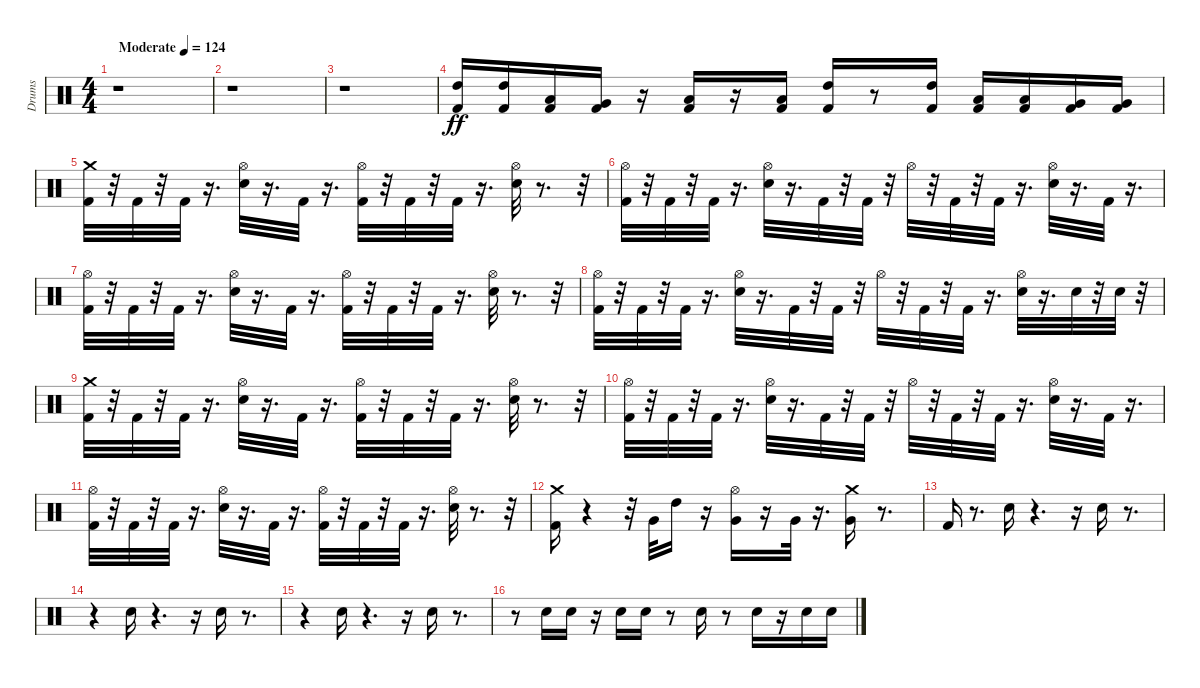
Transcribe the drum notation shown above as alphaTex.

\track ("Drums" "Drums") {instrument percussion}
\staff {score}
\articulation defaults
\ts (4 4)
\tempo (124 "Moderate")
\clef neutral
\ks c
r.1{dy ff} |
r.1 |
r.1 |
("High Tom (hit)" "Kick (hit) 2").16 ("High Tom (hit)" "Kick (hit) 2").16 ("Low Tom (hit)" "Kick (hit) 2").16 ("Very Low Tom (hit)" "Kick (hit) 2").16 r.16 ("Low Tom (hit)" "Kick (hit) 2").16 r.16 ("Low Tom (hit)" "Kick (hit) 2").16 ("High Tom (hit)" "Kick (hit) 2").16 r.8 ("High Tom (hit)" "Kick (hit) 2").16 ("Low Tom (hit)" "Kick (hit) 2").16 ("Low Tom (hit)" "Kick (hit) 2").16 ("Very Low Tom (hit)" "Kick (hit) 2").16 ("Very Low Tom (hit)" "Kick (hit) 2").16 |
("Crash medium (hit)" "Kick (hit) 2").32 r.32 "Kick (hit) 2".32 r.32 "Kick (hit) 2".32 r.16{d} ("Hi-Hat (open)" "Electric Snare (hit)").32 r.16{d} "Kick (hit) 2".32 r.16{d} ("Kick (hit) 2" "Hi-Hat (open)").32 r.32 "Kick (hit) 2".32 r.32 "Kick (hit) 2".32 r.16{d} ("Hi-Hat (open)" "Electric Snare (hit)").32 r.8{d} r.32 |
("Kick (hit) 2" "Hi-Hat (open)").32 r.32 "Kick (hit) 2".32 r.32 "Kick (hit) 2".32 r.16{d} ("Electric Snare (hit)" "Hi-Hat (open)").32 r.16{d} "Kick (hit) 2".32 r.32 "Kick (hit) 2".32 r.32 "Hi-Hat (open)".32 r.32 "Kick (hit) 2".32 r.32 "Kick (hit) 2".32 r.16{d} ("Electric Snare (hit)" "Hi-Hat (open)").32 r.16{d} "Kick (hit) 2".32 r.16{d} |
("Hi-Hat (open)" "Kick (hit) 2").32 r.32 "Kick (hit) 2".32 r.32 "Kick (hit) 2".32 r.16{d} ("Hi-Hat (open)" "Electric Snare (hit)").32 r.16{d} "Kick (hit) 2".32 r.16{d} ("Hi-Hat (open)" "Kick (hit) 2").32 r.32 "Kick (hit) 2".32 r.32 "Kick (hit) 2".32 r.16{d} ("Hi-Hat (open)" "Electric Snare (hit)").32 r.8{d} r.32 |
("Kick (hit) 2" "Hi-Hat (open)").32 r.32 "Kick (hit) 2".32 r.32 "Kick (hit) 2".32 r.16{d} ("Electric Snare (hit)" "Hi-Hat (open)").32 r.16{d} "Kick (hit) 2".32 r.32 "Kick (hit) 2".32 r.32 "Hi-Hat (open)".32 r.32 "Kick (hit) 2".32 r.32 "Kick (hit) 2".32 r.16{d} ("Hi-Hat (open)" "Electric Snare (hit)").32 r.16{d} "Electric Snare (hit)".32 r.32 "Electric Snare (hit)".32 r.32 |
("Crash medium (hit)" "Kick (hit) 2").32 r.32 "Kick (hit) 2".32 r.32 "Kick (hit) 2".32 r.16{d} ("Hi-Hat (open)" "Electric Snare (hit)").32 r.16{d} "Kick (hit) 2".32 r.16{d} ("Kick (hit) 2" "Hi-Hat (open)").32 r.32 "Kick (hit) 2".32 r.32 "Kick (hit) 2".32 r.16{d} ("Hi-Hat (open)" "Electric Snare (hit)").32 r.8{d} r.32 |
("Kick (hit) 2" "Hi-Hat (open)").32 r.32 "Kick (hit) 2".32 r.32 "Kick (hit) 2".32 r.16{d} ("Electric Snare (hit)" "Hi-Hat (open)").32 r.16{d} "Kick (hit) 2".32 r.32 "Kick (hit) 2".32 r.32 "Hi-Hat (open)".32 r.32 "Kick (hit) 2".32 r.32 "Kick (hit) 2".32 r.16{d} ("Electric Snare (hit)" "Hi-Hat (open)").32 r.16{d} "Kick (hit) 2".32 r.16{d} |
("Hi-Hat (open)" "Kick (hit) 2").32 r.32 "Kick (hit) 2".32 r.32 "Kick (hit) 2".32 r.16{d} ("Hi-Hat (open)" "Electric Snare (hit)").32 r.16{d} "Kick (hit) 2".32 r.16{d} ("Hi-Hat (open)" "Kick (hit) 2").32 r.32 "Kick (hit) 2".32 r.32 "Kick (hit) 2".32 r.16{d} ("Hi-Hat (open)" "Electric Snare (hit)").32 r.8{d} r.32 |
("Kick (hit) 2" "Crash medium (hit)").16 r.4 r.32 "Very Low Tom (hit)".32 "High Tom (hit)".16 r.16 ("Hi-Hat (open)" "Very Low Tom (hit)").16 r.16 "Very Low Tom (hit)".32 r.16{d} ("Crash medium (hit)" "Very Low Tom (hit)").16 r.8{d} |
"Kick (hit) 2".16 r.8{d} "Hand Clap (hit)".16 r.4{d} r.16 "Hand Clap (hit)".16 r.8{d} |
r.4 "Hand Clap (hit)".16 r.4{d} r.16 "Hand Clap (hit)".16 r.8{d} |
r.4 "Hand Clap (hit)".16 r.4{d} r.16 "Hand Clap (hit)".16 r.8{d} |
r.8 "Hand Clap (hit)".16 "Hand Clap (hit)".16 r.16 "Hand Clap (hit)".16 "Hand Clap (hit)".16 r.8 "Hand Clap (hit)".16 r.8 "Hand Clap (hit)".16 r.16 "Hand Clap (hit)".16 "Hand Clap (hit)".16
